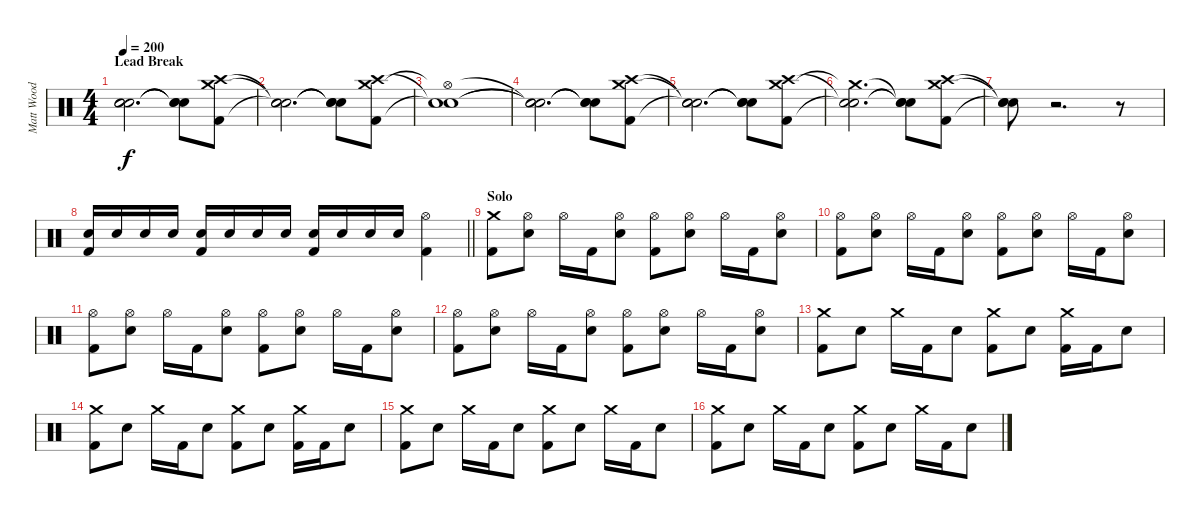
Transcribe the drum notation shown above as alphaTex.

\track ("Matt Wood" "Matt Wood") {instrument percussion}
\staff {score}
\articulation defaults
\ts (4 4)
\section ("" "Lead Break")
\tempo 200
\clef neutral
\ks c
("Snare (hit)"{t} "Snare (hit)"{t} "Snare (hit)"{t}).2{d dy f} ("Snare (hit)"{t} "Snare (hit)"{t} "Snare (hit)"{t}).8 ("Crash medium (hit)" "Crash high (hit)" "Kick (hit) 2").8 |
("Snare (hit)"{t} "Snare (hit)"{t} "Snare (hit)"{t}).2{d} ("Snare (hit)"{t} "Snare (hit)"{t} "Snare (hit)"{t}).8 ("Crash medium (hit)" "Crash high (hit)" "Kick (hit) 2").8 |
("Hi-Hat (open)"{t} "Snare (hit)"{t} "Snare (hit)"{t}).1 |
("Snare (hit)"{t} "Snare (hit)"{t} "Snare (hit)"{t}).2{d} ("Snare (hit)"{t} "Snare (hit)"{t} "Snare (hit)"{t}).8 ("Crash medium (hit)" "Crash high (hit)" "Kick (hit) 2").8 |
("Snare (hit)"{t} "Snare (hit)"{t} "Snare (hit)"{t}).2{d} ("Snare (hit)"{t} "Snare (hit)"{t} "Snare (hit)"{t}).8 ("Crash medium (hit)" "Crash high (hit)" "Kick (hit) 2").8 |
("Crash medium (hit)"{t} "Snare (hit)"{t} "Snare (hit)"{t}).2{d} ("Snare (hit)"{t} "Snare (hit)"{t} "Snare (hit)"{t}).8 ("Crash medium (hit)" "Crash high (hit)" "Kick (hit) 2").8 |
("Snare (hit)"{t} "Snare (hit)"{t} "Snare (hit)"{t}).8 r.2{d} r.8 |
\barLineRight lightlight
("Snare (hit) 2" "Kick (hit) 2").16 "Snare (hit) 2".16 "Snare (hit) 2".16 "Snare (hit) 2".16 ("Snare (hit) 2" "Kick (hit) 2").16 "Snare (hit) 2".16 "Snare (hit) 2".16 "Snare (hit) 2".16 ("Snare (hit) 2" "Kick (hit) 2").16 "Snare (hit) 2".16 "Snare (hit) 2".16 "Snare (hit) 2".16 ("Hi-Hat (open)" "Kick (hit) 2").4 |
\section ("" "Solo")
("Crash medium (hit)" "Kick (hit) 2").8 ("Hi-Hat (open)" "Snare (hit) 2").8 "Hi-Hat (open)".16 "Kick (hit) 2".16 ("Hi-Hat (open)" "Snare (hit) 2").8 ("Hi-Hat (open)" "Kick (hit) 2").8 ("Hi-Hat (open)" "Snare (hit) 2").8 "Hi-Hat (open)".16 "Kick (hit) 2".16 ("Hi-Hat (open)" "Snare (hit) 2").8 |
("Hi-Hat (open)" "Kick (hit) 2").8 ("Hi-Hat (open)" "Snare (hit) 2").8 "Hi-Hat (open)".16 "Kick (hit) 2".16 ("Hi-Hat (open)" "Snare (hit) 2").8 ("Hi-Hat (open)" "Kick (hit) 2").8 ("Hi-Hat (open)" "Snare (hit) 2").8 "Hi-Hat (open)".16 "Kick (hit) 2".16 ("Hi-Hat (open)" "Snare (hit) 2").8 |
("Hi-Hat (open)" "Kick (hit) 2").8 ("Hi-Hat (open)" "Snare (hit) 2").8 "Hi-Hat (open)".16 "Kick (hit) 2".16 ("Hi-Hat (open)" "Snare (hit) 2").8 ("Hi-Hat (open)" "Kick (hit) 2").8 ("Hi-Hat (open)" "Snare (hit) 2").8 "Hi-Hat (open)".16 "Kick (hit) 2".16 ("Hi-Hat (open)" "Snare (hit) 2").8 |
("Hi-Hat (open)" "Kick (hit) 2").8 ("Hi-Hat (open)" "Snare (hit) 2").8 "Hi-Hat (open)".16 "Kick (hit) 2".16 ("Hi-Hat (open)" "Snare (hit) 2").8 ("Hi-Hat (open)" "Kick (hit) 2").8 ("Hi-Hat (open)" "Snare (hit) 2").8 "Hi-Hat (open)".16 "Kick (hit) 2".16 ("Hi-Hat (open)" "Snare (hit) 2").8 |
("Crash medium (hit)" "Kick (hit) 2").8 "Snare (hit) 2".8 "Crash medium (hit)".16 "Kick (hit) 2".16 "Snare (hit) 2".8 ("Crash medium (hit)" "Kick (hit) 2").8 "Snare (hit) 2".8 ("Crash medium (hit)" "Kick (hit) 2").16 "Kick (hit) 2".16 "Snare (hit) 2".8 |
("Crash medium (hit)" "Kick (hit) 2").8 "Snare (hit) 2".8 "Crash medium (hit)".16 "Kick (hit) 2".16 "Snare (hit) 2".8 ("Crash medium (hit)" "Kick (hit) 2").8 "Snare (hit) 2".8 ("Crash medium (hit)" "Kick (hit) 2").16 "Kick (hit) 2".16 "Snare (hit) 2".8 |
("Crash medium (hit)" "Kick (hit) 2").8 "Snare (hit) 2".8 "Crash medium (hit)".16 "Kick (hit) 2".16 "Snare (hit) 2".8 ("Crash medium (hit)" "Kick (hit) 2").8 "Snare (hit) 2".8 "Crash medium (hit)".16 "Kick (hit) 2".16 "Snare (hit) 2".8 |
("Crash medium (hit)" "Kick (hit) 2").8 "Snare (hit) 2".8 "Crash medium (hit)".16 "Kick (hit) 2".16 "Snare (hit) 2".8 ("Crash medium (hit)" "Kick (hit) 2").8 "Snare (hit) 2".8 "Crash medium (hit)".16 "Kick (hit) 2".16 "Snare (hit) 2".8
